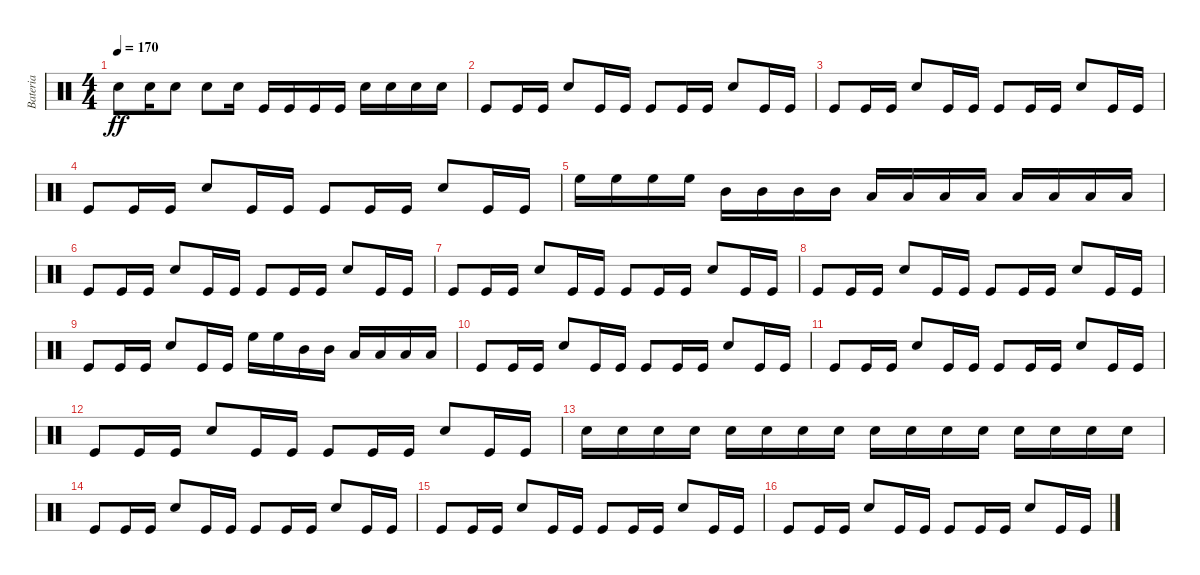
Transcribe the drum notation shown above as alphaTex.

\track ("Bateria" "Bateria") {instrument percussion}
\staff {score}
\articulation defaults
\ts (4 4)
\tempo 170
\clef neutral
\ks c "Electric Snare (hit)".8{dy ff} "Electric Snare (hit)".16 "Electric Snare (hit)".8 "Electric Snare (hit)".8 "Electric Snare (hit)".16 "Kick (hit)".16 "Kick (hit)".16 "Kick (hit)".16 "Kick (hit)".16 "Electric Snare (hit)".16 "Electric Snare (hit)".16 "Electric Snare (hit)".16 "Electric Snare (hit)".16
|
"Kick (hit)".8 "Kick (hit)".16 "Kick (hit)".16 "Electric Snare (hit)".8 "Kick (hit)".16 "Kick (hit)".16 "Kick (hit)".8 "Kick (hit)".16 "Kick (hit)".16 "Electric Snare (hit)".8 "Kick (hit)".16 "Kick (hit)".16 |
"Kick (hit)".8 "Kick (hit)".16 "Kick (hit)".16 "Electric Snare (hit)".8 "Kick (hit)".16 "Kick (hit)".16 "Kick (hit)".8 "Kick (hit)".16 "Kick (hit)".16 "Electric Snare (hit)".8 "Kick (hit)".16 "Kick (hit)".16 |
"Kick (hit)".8 "Kick (hit)".16 "Kick (hit)".16 "Electric Snare (hit)".8 "Kick (hit)".16 "Kick (hit)".16 "Kick (hit)".8 "Kick (hit)".16 "Kick (hit)".16 "Electric Snare (hit)".8 "Kick (hit)".16 "Kick (hit)".16 |
"High Floor Tom (hit)".16 "High Floor Tom (hit)".16 "High Floor Tom (hit)".16 "High Floor Tom (hit)".16 "Mid Tom (hit)".16 "Mid Tom (hit)".16 "Mid Tom (hit)".16 "Mid Tom (hit)".16 "Low Tom (hit)".16 "Low Tom (hit)".16 "Low Tom (hit)".16 "Low Tom (hit)".16 "Low Floor Tom (hit)".16 "Low Floor Tom (hit)".16 "Low Floor Tom (hit)".16 "Low Floor Tom (hit)".16 |
"Kick (hit)".8 "Kick (hit)".16 "Kick (hit)".16 "Electric Snare (hit)".8 "Kick (hit)".16 "Kick (hit)".16 "Kick (hit)".8 "Kick (hit)".16 "Kick (hit)".16 "Electric Snare (hit)".8 "Kick (hit)".16 "Kick (hit)".16 |
"Kick (hit)".8 "Kick (hit)".16 "Kick (hit)".16 "Electric Snare (hit)".8 "Kick (hit)".16 "Kick (hit)".16 "Kick (hit)".8 "Kick (hit)".16 "Kick (hit)".16 "Electric Snare (hit)".8 "Kick (hit)".16 "Kick (hit)".16 |
"Kick (hit)".8 "Kick (hit)".16 "Kick (hit)".16 "Electric Snare (hit)".8 "Kick (hit)".16 "Kick (hit)".16 "Kick (hit)".8 "Kick (hit)".16 "Kick (hit)".16 "Electric Snare (hit)".8 "Kick (hit)".16 "Kick (hit)".16 |
"Kick (hit)".8 "Kick (hit)".16 "Kick (hit)".16 "Electric Snare (hit)".8 "Kick (hit)".16 "Kick (hit)".16 "High Floor Tom (hit)".16 "High Floor Tom (hit)".16 "Mid Tom (hit)".16 "Mid Tom (hit)".16 "Low Tom (hit)".16 "Low Tom (hit)".16 "Low Floor Tom (hit)".16 "Low Floor Tom (hit)".16 |
"Kick (hit)".8 "Kick (hit)".16 "Kick (hit)".16 "Electric Snare (hit)".8 "Kick (hit)".16 "Kick (hit)".16 "Kick (hit)".8 "Kick (hit)".16 "Kick (hit)".16 "Electric Snare (hit)".8 "Kick (hit)".16 "Kick (hit)".16 |
"Kick (hit)".8 "Kick (hit)".16 "Kick (hit)".16 "Electric Snare (hit)".8 "Kick (hit)".16 "Kick (hit)".16 "Kick (hit)".8 "Kick (hit)".16 "Kick (hit)".16 "Electric Snare (hit)".8 "Kick (hit)".16 "Kick (hit)".16 |
"Kick (hit)".8 "Kick (hit)".16 "Kick (hit)".16 "Electric Snare (hit)".8 "Kick (hit)".16 "Kick (hit)".16 "Kick (hit)".8 "Kick (hit)".16 "Kick (hit)".16 "Electric Snare (hit)".8 "Kick (hit)".16 "Kick (hit)".16 |
"Electric Snare (hit)".16 "Electric Snare (hit)".16 "Electric Snare (hit)".16 "Electric Snare (hit)".16 "Electric Snare (hit)".16 "Electric Snare (hit)".16 "Electric Snare (hit)".16 "Electric Snare (hit)".16 "Electric Snare (hit)".16 "Electric Snare (hit)".16 "Electric Snare (hit)".16 "Electric Snare (hit)".16 "Electric Snare (hit)".16 "Electric Snare (hit)".16 "Electric Snare (hit)".16 "Electric Snare (hit)".16 |
"Kick (hit)".8 "Kick (hit)".16 "Kick (hit)".16 "Electric Snare (hit)".8 "Kick (hit)".16 "Kick (hit)".16 "Kick (hit)".8 "Kick (hit)".16 "Kick (hit)".16 "Electric Snare (hit)".8 "Kick (hit)".16 "Kick (hit)".16 |
"Kick (hit)".8 "Kick (hit)".16 "Kick (hit)".16 "Electric Snare (hit)".8 "Kick (hit)".16 "Kick (hit)".16 "Kick (hit)".8 "Kick (hit)".16 "Kick (hit)".16 "Electric Snare (hit)".8 "Kick (hit)".16 "Kick (hit)".16 |
"Kick (hit)".8 "Kick (hit)".16 "Kick (hit)".16 "Electric Snare (hit)".8 "Kick (hit)".16 "Kick (hit)".16 "Kick (hit)".8 "Kick (hit)".16 "Kick (hit)".16 "Electric Snare (hit)".8 "Kick (hit)".16 "Kick (hit)".16
